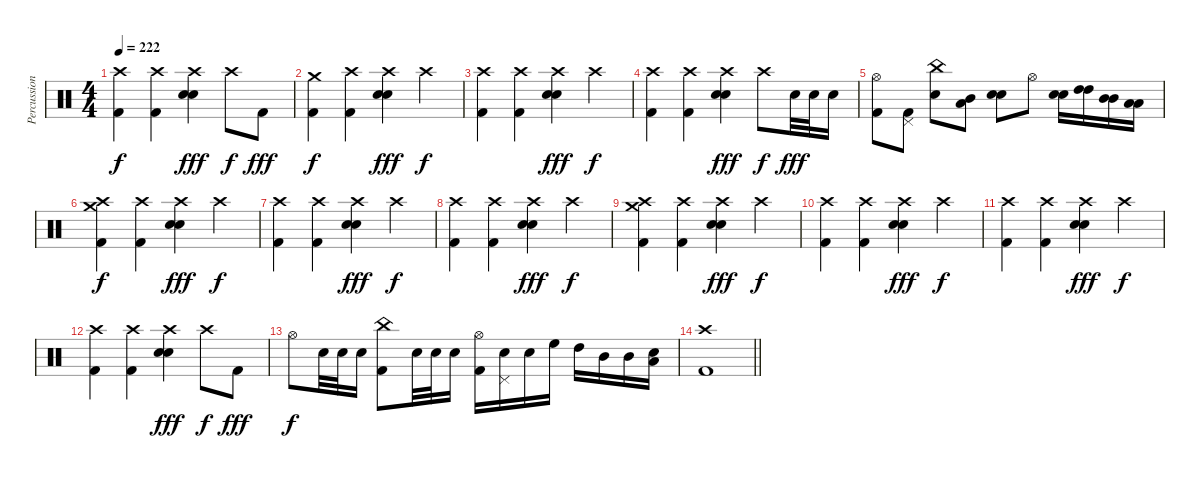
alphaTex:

\track ("Percussions" "Percussion") {instrument percussion}
\staff {score}
\articulation defaults
\ts (4 4)
\tempo 222
\clef neutral
\ks c
("Crash high (hit)" "Kick (hit) 2").4{dy f} ("Crash high (hit)" "Kick (hit) 2").4 ("Crash high (hit)" "Electric Snare (hit)" "Snare (hit) 2").4{dy fff} "Crash high (hit)".8{dy f} "Kick (hit) 2".8{dy fff} |
("Crash medium (hit)" "Kick (hit) 2").4{dy f} ("Crash high (hit)" "Kick (hit) 2").4 ("Crash high (hit)" "Electric Snare (hit)" "Snare (hit) 2").4{dy fff} "Crash high (hit)".4{dy f} |
("Crash high (hit)" "Kick (hit) 2").4 ("Crash high (hit)" "Kick (hit) 2").4 ("Crash high (hit)" "Electric Snare (hit)" "Snare (hit) 2").4{dy fff} "Crash high (hit)".4{dy f} |
("Crash high (hit)" "Kick (hit) 2").4 ("Crash high (hit)" "Kick (hit) 2").4 ("Crash high (hit)" "Electric Snare (hit)" "Snare (hit) 2").4{dy fff} "Crash high (hit)".8{dy f} "Snare (hit) 2".32{dy fff} "Snare (hit) 2".32 "Snare (hit) 2".16 |
("Hi-Hat (open)" "Kick (hit) 2").8 ("Pedal Hi-Hat (hit)" "Kick (hit) 2").8 ("China (hit)" "Snare (hit) 2").8 ("Mid Tom (hit)" "Low Tom (hit)").8 ("Snare (hit) 2" "Snare (hit) 2").8 "Hi-Hat (open)".8 ("Snare (hit) 2" "Snare (hit) 2").16 ("High Tom (hit)" "High Tom (hit)").16 ("Mid Tom (hit)" "Mid Tom (hit)").16 ("Low Tom (hit)" "Low Tom (hit)").16 |
("Crash high (hit)" "Crash medium (hit)" "Kick (hit) 2").4{dy f} ("Crash high (hit)" "Kick (hit) 2").4 ("Crash high (hit)" "Snare (hit) 2" "Electric Snare (hit)").4{dy fff} "Crash high (hit)".4{dy f} |
("Crash high (hit)" "Kick (hit) 2").4 ("Crash high (hit)" "Kick (hit) 2").4 ("Crash high (hit)" "Electric Snare (hit)" "Snare (hit) 2").4{dy fff} "Crash high (hit)".4{dy f} |
("Crash high (hit)" "Kick (hit) 2").4 ("Crash high (hit)" "Kick (hit) 2").4 ("Crash high (hit)" "Electric Snare (hit)" "Snare (hit) 2").4{dy fff} "Crash high (hit)".4{dy f} |
("Crash high (hit)" "Crash medium (hit)" "Kick (hit) 2").4 ("Crash high (hit)" "Kick (hit) 2").4 ("Crash high (hit)" "Snare (hit) 2" "Electric Snare (hit)").4{dy fff} "Crash high (hit)".4{dy f} |
("Crash high (hit)" "Kick (hit) 2").4 ("Crash high (hit)" "Kick (hit) 2").4 ("Crash high (hit)" "Electric Snare (hit)" "Snare (hit) 2").4{dy fff} "Crash high (hit)".4{dy f} |
("Crash high (hit)" "Kick (hit) 2").4 ("Crash high (hit)" "Kick (hit) 2").4 ("Crash high (hit)" "Electric Snare (hit)" "Snare (hit) 2").4{dy fff} "Crash high (hit)".4{dy f} |
("Crash high (hit)" "Kick (hit) 2").4 ("Crash high (hit)" "Kick (hit) 2").4 ("Crash high (hit)" "Electric Snare (hit)" "Snare (hit) 2").4{dy fff} "Crash high (hit)".8{dy f} "Kick (hit) 2".8{dy fff} |
"Hi-Hat (open)".8{dy f} "Electric Snare (hit)".32 "Electric Snare (hit)".32 "Electric Snare (hit)".16 ("China (hit)" "Kick (hit) 2").8 "Electric Snare (hit)".32 "Electric Snare (hit)".32 "Electric Snare (hit)".16 ("Hi-Hat (open)" "Kick (hit) 2").16 ("Pedal Hi-Hat (hit)" "Electric Snare (hit)").16 "Electric Snare (hit)".16 "High Floor Tom (hit)".16 "High Tom (hit)".16 "Mid Tom (hit)".16 "Mid Tom (hit)".16 ("Low Tom (hit)" "Electric Snare (hit)").16 |
\barLineRight lightlight
("Crash high (hit)" "Kick (hit) 2").1
